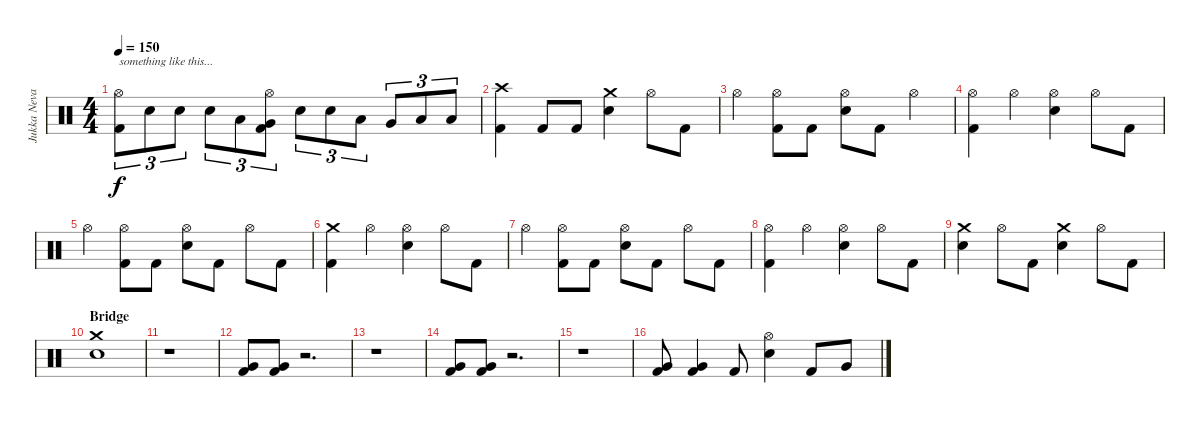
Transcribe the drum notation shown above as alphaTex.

\track ("Jukka Nevalainen" "Jukka Neva") {instrument percussion}
\staff {score}
\articulation defaults
\ts (4 4)
\tempo 150
\clef neutral
\ks c
("Hi-Hat (open)" "Kick (hit) 2").8{tu (3 2) txt "something like this..." dy f} "Electric Snare (hit)".8{tu (3 2)} "Electric Snare (hit)".8{tu (3 2)} "Electric Snare (hit)".8{tu (3 2)} "Low Tom (hit)".8{tu (3 2)} ("Hi-Hat (open)" "Very Low Tom (hit)" "Kick (hit) 2").8{tu (3 2)} "Electric Snare (hit)".8{tu (3 2)} "Electric Snare (hit)".8{tu (3 2)} "Low Tom (hit)".8{tu (3 2)} "Very Low Tom (hit)".8{tu (3 2)} "Low Floor Tom (hit)".8{tu (3 2)} "Low Floor Tom (hit)".8{tu (3 2)} |
("Crash high (hit)" "Kick (hit) 2").4 "Kick (hit) 2".8 "Kick (hit) 2".8 ("Crash medium (hit)" "Electric Snare (hit)").4 "Hi-Hat (open)".8 "Kick (hit) 2".8 |
"Hi-Hat (open)".4 ("Hi-Hat (open)" "Kick (hit) 2").8 "Kick (hit) 2".8 ("Hi-Hat (open)" "Electric Snare (hit)").8 "Kick (hit) 2".8 "Hi-Hat (open)".4 |
("Hi-Hat (open)" "Kick (hit) 2").4 "Hi-Hat (open)".4 ("Hi-Hat (open)" "Electric Snare (hit)").4 "Hi-Hat (open)".8 "Kick (hit) 2".8 |
"Hi-Hat (open)".4 ("Hi-Hat (open)" "Kick (hit) 2").8 "Kick (hit) 2".8 ("Hi-Hat (open)" "Electric Snare (hit)").8 "Kick (hit) 2".8 "Hi-Hat (open)".8 "Kick (hit) 2".8 |
("Crash medium (hit)" "Kick (hit) 2").4 "Hi-Hat (open)".4 ("Hi-Hat (open)" "Electric Snare (hit)").4 "Hi-Hat (open)".8 "Kick (hit) 2".8 |
"Hi-Hat (open)".4 ("Hi-Hat (open)" "Kick (hit) 2").8 "Kick (hit) 2".8 ("Hi-Hat (open)" "Electric Snare (hit)").8 "Kick (hit) 2".8 "Hi-Hat (open)".8 "Kick (hit) 2".8 |
("Hi-Hat (open)" "Kick (hit) 2").4 "Hi-Hat (open)".4 ("Hi-Hat (open)" "Electric Snare (hit)").4 "Hi-Hat (open)".8 "Kick (hit) 2".8 |
("Crash medium (hit)" "Electric Snare (hit)").4 "Hi-Hat (open)".8 "Kick (hit) 2".8 ("Crash medium (hit)" "Electric Snare (hit)").4 "Hi-Hat (open)".8 "Kick (hit) 2".8 |
\section ("" "Bridge")
("Crash medium (hit)" "Electric Snare (hit)").1 |
r.1 |
("Very Low Tom (hit)" "Kick (hit) 2").8 ("Very Low Tom (hit)" "Kick (hit) 2").8 r.2{d} |
r.1 |
("Very Low Tom (hit)" "Kick (hit) 2").8 ("Very Low Tom (hit)" "Kick (hit) 2").8 r.2{d} |
r.1 |
("Very Low Tom (hit)" "Kick (hit) 2").8 ("Very Low Tom (hit)" "Kick (hit) 2").4 "Kick (hit) 2".8 ("Hi-Hat (open)" "Electric Snare (hit)").4 "Kick (hit) 2".8 "Very Low Tom (hit)".8
